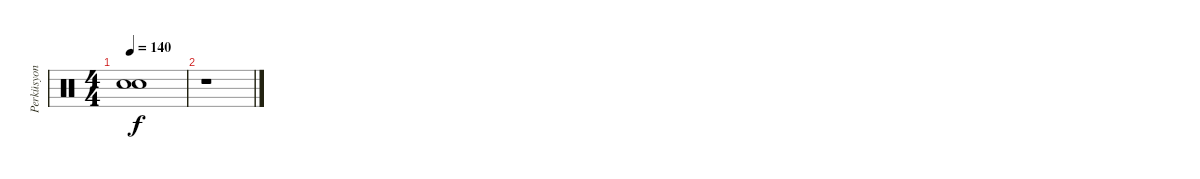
\track ("Perküsyon" "Perküsyon") {instrument percussion}
\staff {score}
\articulation defaults
\ts (4 4)
\tempo 140
\clef neutral
\ks c
("Snare (hit)"{t} "Snare (hit)"{t}).1{dy f} |
r.1
